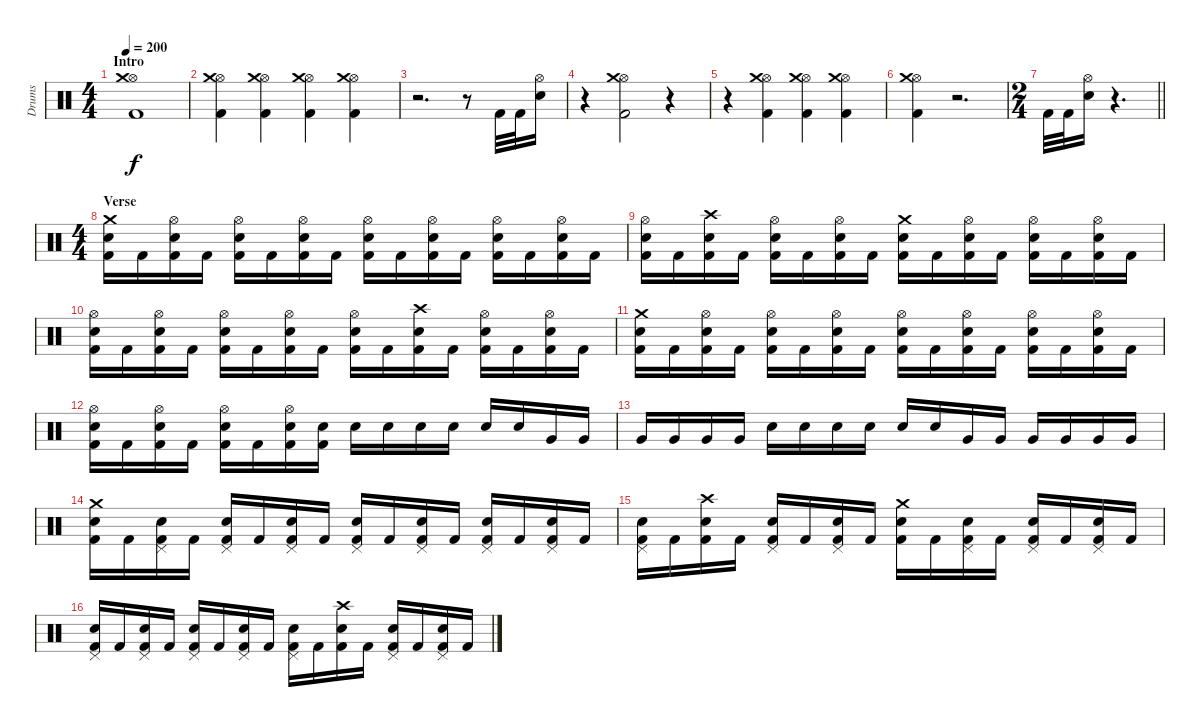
\track ("Drums" "Drums") {instrument percussion}
\staff {score}
\articulation defaults
\ts (4 4)
\section ("" "Intro")
\tempo 200
\clef neutral
\ks c
("Hi-Hat (open)" "Crash medium (hit)" "Kick (hit) 2").1{dy f} |
("Hi-Hat (open)" "Crash medium (hit)" "Kick (hit) 2").4 ("Hi-Hat (open)" "Crash medium (hit)" "Kick (hit) 2").4 ("Hi-Hat (open)" "Crash medium (hit)" "Kick (hit) 2").4 ("Hi-Hat (open)" "Crash medium (hit)" "Kick (hit) 2").4 |
r.2{d} r.8 "Kick (hit) 2".32 "Kick (hit) 2".32 ("Hi-Hat (open)" "Electric Snare (hit)").16 |
r.4 ("Hi-Hat (open)" "Crash medium (hit)" "Kick (hit) 2").2 r.4 |
r.4 ("Hi-Hat (open)" "Crash medium (hit)" "Kick (hit) 2").4 ("Hi-Hat (open)" "Crash medium (hit)" "Kick (hit) 2").4 ("Hi-Hat (open)" "Crash medium (hit)" "Kick (hit) 2").4 |
("Hi-Hat (open)" "Crash medium (hit)" "Kick (hit) 2").4 r.2{d} |
\ts (2 4)
\barLineRight lightlight "Kick (hit) 2".32 "Kick (hit) 2".32
("Hi-Hat (open)" "Electric Snare (hit)").16 r.4{d} |
\ts (4 4)
\section ("" "Verse")
("Crash medium (hit)" "Electric Snare (hit)" "Kick (hit) 2").16 "Kick (hit) 2".16 ("Hi-Hat (open)" "Electric Snare (hit)" "Kick (hit) 2").16 "Kick (hit) 2".16 ("Hi-Hat (open)" "Electric Snare (hit)" "Kick (hit) 2").16 "Kick (hit) 2".16 ("Hi-Hat (open)" "Electric Snare (hit)" "Kick (hit) 2").16 "Kick (hit) 2".16 ("Hi-Hat (open)" "Electric Snare (hit)" "Kick (hit) 2").16 "Kick (hit) 2".16 ("Hi-Hat (open)" "Electric Snare (hit)" "Kick (hit) 2").16 "Kick (hit) 2".16 ("Hi-Hat (open)" "Electric Snare (hit)" "Kick (hit) 2").16 "Kick (hit) 2".16 ("Hi-Hat (open)" "Electric Snare (hit)" "Kick (hit) 2").16 "Kick (hit) 2".16 |
("Hi-Hat (open)" "Electric Snare (hit)" "Kick (hit) 2").16 "Kick (hit) 2".16 ("Crash high (hit)" "Electric Snare (hit)" "Kick (hit) 2").16 "Kick (hit) 2".16 ("Hi-Hat (open)" "Electric Snare (hit)" "Kick (hit) 2").16 "Kick (hit) 2".16 ("Hi-Hat (open)" "Electric Snare (hit)" "Kick (hit) 2").16 "Kick (hit) 2".16 ("Crash medium (hit)" "Electric Snare (hit)" "Kick (hit) 2").16 "Kick (hit) 2".16 ("Hi-Hat (open)" "Electric Snare (hit)" "Kick (hit) 2").16 "Kick (hit) 2".16 ("Hi-Hat (open)" "Electric Snare (hit)" "Kick (hit) 2").16 "Kick (hit) 2".16 ("Hi-Hat (open)" "Electric Snare (hit)" "Kick (hit) 2").16 "Kick (hit) 2".16 |
("Hi-Hat (open)" "Electric Snare (hit)" "Kick (hit) 2").16 "Kick (hit) 2".16 ("Hi-Hat (open)" "Electric Snare (hit)" "Kick (hit) 2").16 "Kick (hit) 2".16 ("Hi-Hat (open)" "Electric Snare (hit)" "Kick (hit) 2").16 "Kick (hit) 2".16 ("Hi-Hat (open)" "Electric Snare (hit)" "Kick (hit) 2").16 "Kick (hit) 2".16 ("Hi-Hat (open)" "Electric Snare (hit)" "Kick (hit) 2").16 "Kick (hit) 2".16 ("Crash high (hit)" "Electric Snare (hit)" "Kick (hit) 2").16 "Kick (hit) 2".16 ("Hi-Hat (open)" "Electric Snare (hit)" "Kick (hit) 2").16 "Kick (hit) 2".16 ("Hi-Hat (open)" "Electric Snare (hit)" "Kick (hit) 2").16 "Kick (hit) 2".16 |
("Crash medium (hit)" "Electric Snare (hit)" "Kick (hit) 2").16 "Kick (hit) 2".16 ("Hi-Hat (open)" "Electric Snare (hit)" "Kick (hit) 2").16 "Kick (hit) 2".16 ("Hi-Hat (open)" "Electric Snare (hit)" "Kick (hit) 2").16 "Kick (hit) 2".16 ("Hi-Hat (open)" "Electric Snare (hit)" "Kick (hit) 2").16 "Kick (hit) 2".16 ("Hi-Hat (open)" "Electric Snare (hit)" "Kick (hit) 2").16 "Kick (hit) 2".16 ("Hi-Hat (open)" "Electric Snare (hit)" "Kick (hit) 2").16 "Kick (hit) 2".16 ("Hi-Hat (open)" "Electric Snare (hit)" "Kick (hit) 2").16 "Kick (hit) 2".16 ("Hi-Hat (open)" "Electric Snare (hit)" "Kick (hit) 2").16 "Kick (hit) 2".16 |
("Hi-Hat (open)" "Electric Snare (hit)" "Kick (hit) 2").16 "Kick (hit) 2".16 ("Hi-Hat (open)" "Electric Snare (hit)" "Kick (hit) 2").16 "Kick (hit) 2".16 ("Hi-Hat (open)" "Electric Snare (hit)" "Kick (hit) 2").16 "Kick (hit) 2".16 ("Hi-Hat (open)" "Electric Snare (hit)" "Kick (hit) 2").16 ("Electric Snare (hit)" "Kick (hit) 2").16 "Electric Snare (hit)".16 "Electric Snare (hit)".16 "Electric Snare (hit)".16 "Electric Snare (hit)".16 "Electric Snare (hit)".16 "Electric Snare (hit)".16 "Very Low Tom (hit)".16 "Very Low Tom (hit)".16 |
"Very Low Tom (hit)".16 "Very Low Tom (hit)".16 "Very Low Tom (hit)".16 "Very Low Tom (hit)".16 "Electric Snare (hit)".16 "Electric Snare (hit)".16 "Electric Snare (hit)".16 "Electric Snare (hit)".16 "Electric Snare (hit)".16 "Electric Snare (hit)".16 "Very Low Tom (hit)".16 "Very Low Tom (hit)".16 "Very Low Tom (hit)".16 "Very Low Tom (hit)".16 "Very Low Tom (hit)".16 "Very Low Tom (hit)".16 |
("Crash medium (hit)" "Electric Snare (hit)" "Kick (hit) 2").16 "Kick (hit) 2".16 ("Pedal Hi-Hat (hit)" "Electric Snare (hit)" "Kick (hit) 2").16 "Kick (hit) 2".16 ("Pedal Hi-Hat (hit)" "Electric Snare (hit)" "Kick (hit) 2").16 "Kick (hit) 2".16 ("Pedal Hi-Hat (hit)" "Electric Snare (hit)" "Kick (hit) 2").16 "Kick (hit) 2".16 ("Pedal Hi-Hat (hit)" "Electric Snare (hit)" "Kick (hit) 2").16 "Kick (hit) 2".16 ("Pedal Hi-Hat (hit)" "Electric Snare (hit)" "Kick (hit) 2").16 "Kick (hit) 2".16 ("Pedal Hi-Hat (hit)" "Electric Snare (hit)" "Kick (hit) 2").16 "Kick (hit) 2".16 ("Pedal Hi-Hat (hit)" "Electric Snare (hit)" "Kick (hit) 2").16 "Kick (hit) 2".16 |
("Pedal Hi-Hat (hit)" "Electric Snare (hit)" "Kick (hit) 2").16 "Kick (hit) 2".16 ("Crash high (hit)" "Electric Snare (hit)" "Kick (hit) 2").16 "Kick (hit) 2".16 ("Pedal Hi-Hat (hit)" "Electric Snare (hit)" "Kick (hit) 2").16 "Kick (hit) 2".16 ("Pedal Hi-Hat (hit)" "Electric Snare (hit)" "Kick (hit) 2").16 "Kick (hit) 2".16 ("Crash medium (hit)" "Electric Snare (hit)" "Kick (hit) 2").16 "Kick (hit) 2".16 ("Pedal Hi-Hat (hit)" "Electric Snare (hit)" "Kick (hit) 2").16 "Kick (hit) 2".16 ("Pedal Hi-Hat (hit)" "Electric Snare (hit)" "Kick (hit) 2").16 "Kick (hit) 2".16 ("Pedal Hi-Hat (hit)" "Electric Snare (hit)" "Kick (hit) 2").16 "Kick (hit) 2".16 |
("Pedal Hi-Hat (hit)" "Electric Snare (hit)" "Kick (hit) 2").16 "Kick (hit) 2".16 ("Pedal Hi-Hat (hit)" "Electric Snare (hit)" "Kick (hit) 2").16 "Kick (hit) 2".16 ("Pedal Hi-Hat (hit)" "Electric Snare (hit)" "Kick (hit) 2").16 "Kick (hit) 2".16 ("Pedal Hi-Hat (hit)" "Electric Snare (hit)" "Kick (hit) 2").16 "Kick (hit) 2".16 ("Pedal Hi-Hat (hit)" "Electric Snare (hit)" "Kick (hit) 2").16 "Kick (hit) 2".16 ("Crash high (hit)" "Electric Snare (hit)" "Kick (hit) 2").16 "Kick (hit) 2".16 ("Pedal Hi-Hat (hit)" "Electric Snare (hit)" "Kick (hit) 2").16 "Kick (hit) 2".16 ("Pedal Hi-Hat (hit)" "Electric Snare (hit)" "Kick (hit) 2").16 "Kick (hit) 2".16
